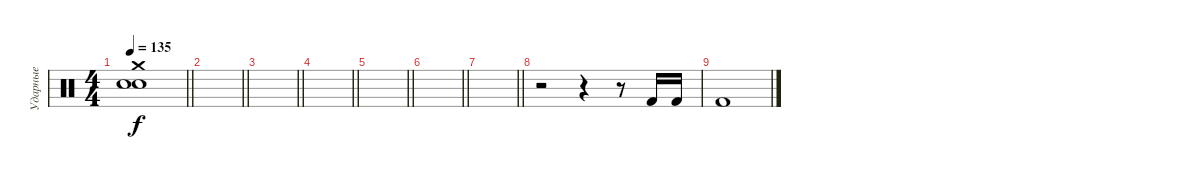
\track ("Ударные" "Ударные") {instrument percussion}
\staff {score}
\articulation defaults
\ts (4 4)
\tempo 135
\clef neutral
\barLineRight lightlight
\ks c
("Crash medium (hit)" "Electric Snare (hit)" "Snare (hit) 2").1{dy f} |
\barLineRight lightlight
|
\barLineRight lightlight
|
\barLineRight lightlight
|
\barLineRight lightlight
|
\barLineRight lightlight
|
\barLineRight lightlight
|
r.2 r.4 r.8 "Kick (hit) 2".16 "Kick (hit) 2".16 |
"Kick (hit) 2".1
